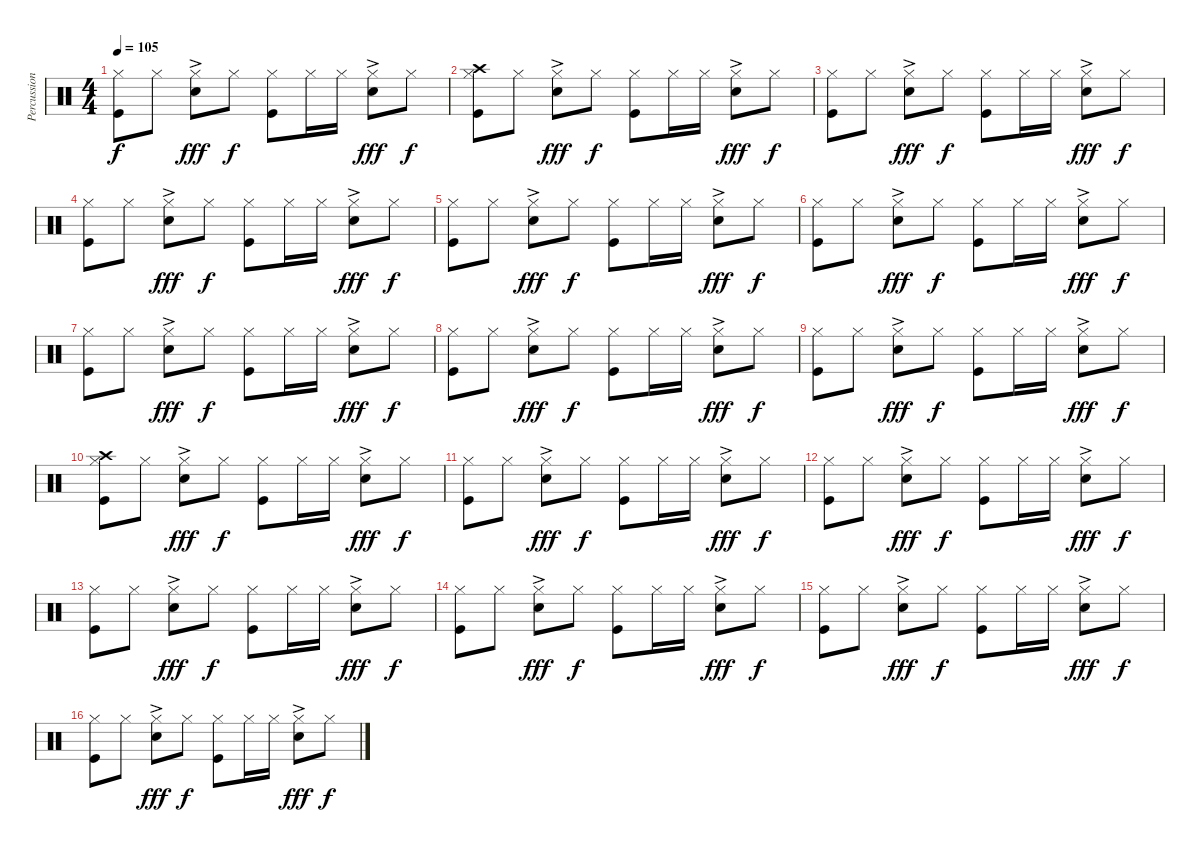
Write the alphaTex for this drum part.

\track ("Percussions" "Percussion") {instrument percussion}
\staff {score}
\articulation defaults
\ts (4 4)
\tempo 105
\clef neutral
\ks c
("Kick (hit)" "Hi-Hat (closed)").8{dy f} "Hi-Hat (closed)".8 ("Electric Snare (hit)"{ac} "Hi-Hat (closed)").8{dy fff} "Hi-Hat (closed)".8{dy f} ("Kick (hit)" "Hi-Hat (closed)").8 "Hi-Hat (closed)".16 "Hi-Hat (closed)".16 ("Electric Snare (hit)"{ac} "Hi-Hat (closed)").8{dy fff} "Hi-Hat (closed)".8{dy f} |
("Kick (hit)" "Crash high (hit)" "Hi-Hat (closed)").8 "Hi-Hat (closed)".8 ("Electric Snare (hit)"{ac} "Hi-Hat (closed)").8{dy fff} "Hi-Hat (closed)".8{dy f} ("Kick (hit)" "Hi-Hat (closed)").8 "Hi-Hat (closed)".16 "Hi-Hat (closed)".16 ("Electric Snare (hit)"{ac} "Hi-Hat (closed)").8{dy fff} "Hi-Hat (closed)".8{dy f} |
("Kick (hit)" "Hi-Hat (closed)").8 "Hi-Hat (closed)".8 ("Electric Snare (hit)"{ac} "Hi-Hat (closed)").8{dy fff} "Hi-Hat (closed)".8{dy f} ("Kick (hit)" "Hi-Hat (closed)").8 "Hi-Hat (closed)".16 "Hi-Hat (closed)".16 ("Electric Snare (hit)"{ac} "Hi-Hat (closed)").8{dy fff} "Hi-Hat (closed)".8{dy f} |
("Kick (hit)" "Hi-Hat (closed)").8 "Hi-Hat (closed)".8 ("Electric Snare (hit)"{ac} "Hi-Hat (closed)").8{dy fff} "Hi-Hat (closed)".8{dy f} ("Kick (hit)" "Hi-Hat (closed)").8 "Hi-Hat (closed)".16 "Hi-Hat (closed)".16 ("Electric Snare (hit)"{ac} "Hi-Hat (closed)").8{dy fff} "Hi-Hat (closed)".8{dy f} |
("Kick (hit)" "Hi-Hat (closed)").8 "Hi-Hat (closed)".8 ("Electric Snare (hit)"{ac} "Hi-Hat (closed)").8{dy fff} "Hi-Hat (closed)".8{dy f} ("Kick (hit)" "Hi-Hat (closed)").8 "Hi-Hat (closed)".16 "Hi-Hat (closed)".16 ("Electric Snare (hit)"{ac} "Hi-Hat (closed)").8{dy fff} "Hi-Hat (closed)".8{dy f} |
("Kick (hit)" "Hi-Hat (closed)").8 "Hi-Hat (closed)".8 ("Electric Snare (hit)"{ac} "Hi-Hat (closed)").8{dy fff} "Hi-Hat (closed)".8{dy f} ("Kick (hit)" "Hi-Hat (closed)").8 "Hi-Hat (closed)".16 "Hi-Hat (closed)".16 ("Electric Snare (hit)"{ac} "Hi-Hat (closed)").8{dy fff} "Hi-Hat (closed)".8{dy f} |
("Kick (hit)" "Hi-Hat (closed)").8 "Hi-Hat (closed)".8 ("Electric Snare (hit)"{ac} "Hi-Hat (closed)").8{dy fff} "Hi-Hat (closed)".8{dy f} ("Kick (hit)" "Hi-Hat (closed)").8 "Hi-Hat (closed)".16 "Hi-Hat (closed)".16 ("Electric Snare (hit)"{ac} "Hi-Hat (closed)").8{dy fff} "Hi-Hat (closed)".8{dy f} |
("Kick (hit)" "Hi-Hat (closed)").8 "Hi-Hat (closed)".8 ("Electric Snare (hit)"{ac} "Hi-Hat (closed)").8{dy fff} "Hi-Hat (closed)".8{dy f} ("Kick (hit)" "Hi-Hat (closed)").8 "Hi-Hat (closed)".16 "Hi-Hat (closed)".16 ("Electric Snare (hit)"{ac} "Hi-Hat (closed)").8{dy fff} "Hi-Hat (closed)".8{dy f} |
("Kick (hit)" "Hi-Hat (closed)").8 "Hi-Hat (closed)".8 ("Electric Snare (hit)"{ac} "Hi-Hat (closed)").8{dy fff} "Hi-Hat (closed)".8{dy f} ("Kick (hit)" "Hi-Hat (closed)").8 "Hi-Hat (closed)".16 "Hi-Hat (closed)".16 ("Electric Snare (hit)"{ac} "Hi-Hat (closed)").8{dy fff} "Hi-Hat (closed)".8{dy f} |
("Kick (hit)" "Crash high (hit)" "Hi-Hat (closed)").8 "Hi-Hat (closed)".8 ("Electric Snare (hit)"{ac} "Hi-Hat (closed)").8{dy fff} "Hi-Hat (closed)".8{dy f} ("Kick (hit)" "Hi-Hat (closed)").8 "Hi-Hat (closed)".16 "Hi-Hat (closed)".16 ("Electric Snare (hit)"{ac} "Hi-Hat (closed)").8{dy fff} "Hi-Hat (closed)".8{dy f} |
("Kick (hit)" "Hi-Hat (closed)").8 "Hi-Hat (closed)".8 ("Electric Snare (hit)"{ac} "Hi-Hat (closed)").8{dy fff} "Hi-Hat (closed)".8{dy f} ("Kick (hit)" "Hi-Hat (closed)").8 "Hi-Hat (closed)".16 "Hi-Hat (closed)".16 ("Electric Snare (hit)"{ac} "Hi-Hat (closed)").8{dy fff} "Hi-Hat (closed)".8{dy f} |
("Kick (hit)" "Hi-Hat (closed)").8 "Hi-Hat (closed)".8 ("Electric Snare (hit)"{ac} "Hi-Hat (closed)").8{dy fff} "Hi-Hat (closed)".8{dy f} ("Kick (hit)" "Hi-Hat (closed)").8 "Hi-Hat (closed)".16 "Hi-Hat (closed)".16 ("Electric Snare (hit)"{ac} "Hi-Hat (closed)").8{dy fff} "Hi-Hat (closed)".8{dy f} |
("Kick (hit)" "Hi-Hat (closed)").8 "Hi-Hat (closed)".8 ("Electric Snare (hit)"{ac} "Hi-Hat (closed)").8{dy fff} "Hi-Hat (closed)".8{dy f} ("Kick (hit)" "Hi-Hat (closed)").8 "Hi-Hat (closed)".16 "Hi-Hat (closed)".16 ("Electric Snare (hit)"{ac} "Hi-Hat (closed)").8{dy fff} "Hi-Hat (closed)".8{dy f} |
("Kick (hit)" "Hi-Hat (closed)").8 "Hi-Hat (closed)".8 ("Electric Snare (hit)"{ac} "Hi-Hat (closed)").8{dy fff} "Hi-Hat (closed)".8{dy f} ("Kick (hit)" "Hi-Hat (closed)").8 "Hi-Hat (closed)".16 "Hi-Hat (closed)".16 ("Electric Snare (hit)"{ac} "Hi-Hat (closed)").8{dy fff} "Hi-Hat (closed)".8{dy f} |
("Kick (hit)" "Hi-Hat (closed)").8 "Hi-Hat (closed)".8 ("Electric Snare (hit)"{ac} "Hi-Hat (closed)").8{dy fff} "Hi-Hat (closed)".8{dy f} ("Kick (hit)" "Hi-Hat (closed)").8 "Hi-Hat (closed)".16 "Hi-Hat (closed)".16 ("Electric Snare (hit)"{ac} "Hi-Hat (closed)").8{dy fff} "Hi-Hat (closed)".8{dy f} |
("Kick (hit)" "Hi-Hat (closed)").8 "Hi-Hat (closed)".8 ("Electric Snare (hit)"{ac} "Hi-Hat (closed)").8{dy fff} "Hi-Hat (closed)".8{dy f} ("Kick (hit)" "Hi-Hat (closed)").8 "Hi-Hat (closed)".16 "Hi-Hat (closed)".16 ("Electric Snare (hit)"{ac} "Hi-Hat (closed)").8{dy fff} "Hi-Hat (closed)".8{dy f}
